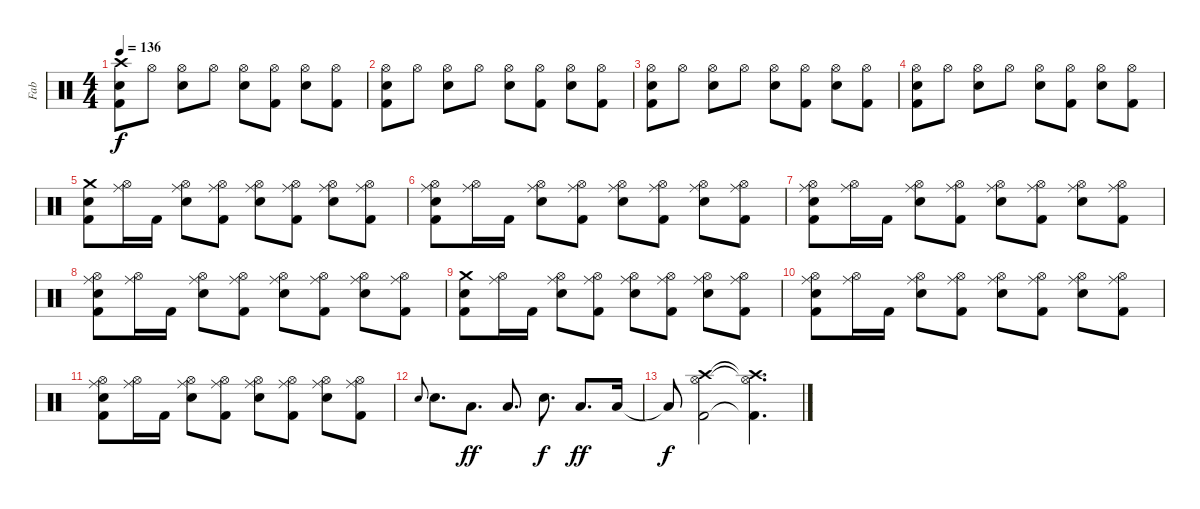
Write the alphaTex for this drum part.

\track ("Fab" "Fab") {instrument percussion}
\staff {score}
\articulation defaults
\ts (4 4)
\tempo 136
\clef neutral
\ks c
("Crash high (hit)" "Snare (hit) 2" "Kick (hit) 2").8{dy f} "Hi-Hat (open)".8 ("Hi-Hat (open)" "Snare (hit) 2").8 "Hi-Hat (open)".8 ("Hi-Hat (open)" "Snare (hit) 2").8 ("Hi-Hat (open)" "Kick (hit) 2").8 ("Hi-Hat (open)" "Snare (hit) 2").8 ("Hi-Hat (open)" "Kick (hit) 2").8 |
("Hi-Hat (open)" "Snare (hit) 2" "Kick (hit) 2").8 "Hi-Hat (open)".8 ("Hi-Hat (open)" "Snare (hit) 2").8 "Hi-Hat (open)".8 ("Hi-Hat (open)" "Snare (hit) 2").8 ("Hi-Hat (open)" "Kick (hit) 2").8 ("Hi-Hat (open)" "Snare (hit) 2").8 ("Hi-Hat (open)" "Kick (hit) 2").8 |
("Hi-Hat (open)" "Snare (hit) 2" "Kick (hit) 2").8 "Hi-Hat (open)".8 ("Hi-Hat (open)" "Snare (hit) 2").8 "Hi-Hat (open)".8 ("Hi-Hat (open)" "Snare (hit) 2").8 ("Hi-Hat (open)" "Kick (hit) 2").8 ("Hi-Hat (open)" "Snare (hit) 2").8 ("Hi-Hat (open)" "Kick (hit) 2").8 |
("Hi-Hat (open)" "Snare (hit) 2" "Kick (hit) 2").8 "Hi-Hat (open)".8 ("Hi-Hat (open)" "Snare (hit) 2").8 "Hi-Hat (open)".8 ("Hi-Hat (open)" "Snare (hit) 2").8 ("Hi-Hat (open)" "Kick (hit) 2").8 ("Hi-Hat (open)" "Snare (hit) 2").8 ("Hi-Hat (open)" "Kick (hit) 2").8 |
("Crash medium (hit)" "Snare (hit) 2" "Kick (hit) 2").8 ("Ride (middle)" "Hi-Hat (open)").16 "Kick (hit) 2".16 ("Ride (middle)" "Hi-Hat (open)" "Snare (hit) 2").8 ("Ride (middle)" "Hi-Hat (open)" "Kick (hit) 2").8 ("Ride (middle)" "Hi-Hat (open)" "Snare (hit) 2").8 ("Ride (middle)" "Hi-Hat (open)" "Kick (hit) 2").8 ("Ride (middle)" "Hi-Hat (open)" "Snare (hit) 2").8 ("Ride (middle)" "Hi-Hat (open)" "Kick (hit) 2").8 |
("Ride (middle)" "Hi-Hat (open)" "Snare (hit) 2" "Kick (hit) 2").8 ("Ride (middle)" "Hi-Hat (open)").16 "Kick (hit) 2".16 ("Ride (middle)" "Hi-Hat (open)" "Snare (hit) 2").8 ("Ride (middle)" "Hi-Hat (open)" "Kick (hit) 2").8 ("Ride (middle)" "Hi-Hat (open)" "Snare (hit) 2").8 ("Ride (middle)" "Hi-Hat (open)" "Kick (hit) 2").8 ("Ride (middle)" "Hi-Hat (open)" "Snare (hit) 2").8 ("Ride (middle)" "Hi-Hat (open)" "Kick (hit) 2").8 |
("Ride (middle)" "Hi-Hat (open)" "Snare (hit) 2" "Kick (hit) 2").8 ("Ride (middle)" "Hi-Hat (open)").16 "Kick (hit) 2".16 ("Ride (middle)" "Hi-Hat (open)" "Snare (hit) 2").8 ("Ride (middle)" "Hi-Hat (open)" "Kick (hit) 2").8 ("Ride (middle)" "Hi-Hat (open)" "Snare (hit) 2").8 ("Ride (middle)" "Hi-Hat (open)" "Kick (hit) 2").8 ("Ride (middle)" "Hi-Hat (open)" "Snare (hit) 2").8 ("Ride (middle)" "Hi-Hat (open)" "Kick (hit) 2").8 |
("Ride (middle)" "Hi-Hat (open)" "Snare (hit) 2" "Kick (hit) 2").8 ("Ride (middle)" "Hi-Hat (open)").16 "Kick (hit) 2".16 ("Ride (middle)" "Hi-Hat (open)" "Snare (hit) 2").8 ("Ride (middle)" "Hi-Hat (open)" "Kick (hit) 2").8 ("Ride (middle)" "Hi-Hat (open)" "Snare (hit) 2").8 ("Ride (middle)" "Hi-Hat (open)" "Kick (hit) 2").8 ("Ride (middle)" "Hi-Hat (open)" "Snare (hit) 2").8 ("Ride (middle)" "Hi-Hat (open)" "Kick (hit) 2").8 |
("Crash medium (hit)" "Snare (hit) 2" "Kick (hit) 2").8 ("Ride (middle)" "Hi-Hat (open)").16 "Kick (hit) 2".16 ("Ride (middle)" "Hi-Hat (open)" "Snare (hit) 2").8 ("Ride (middle)" "Hi-Hat (open)" "Kick (hit) 2").8 ("Ride (middle)" "Hi-Hat (open)" "Snare (hit) 2").8 ("Ride (middle)" "Hi-Hat (open)" "Kick (hit) 2").8 ("Ride (middle)" "Hi-Hat (open)" "Snare (hit) 2").8 ("Ride (middle)" "Hi-Hat (open)" "Kick (hit) 2").8 |
("Ride (middle)" "Hi-Hat (open)" "Snare (hit) 2" "Kick (hit) 2").8 ("Ride (middle)" "Hi-Hat (open)").16 "Kick (hit) 2".16 ("Ride (middle)" "Hi-Hat (open)" "Snare (hit) 2").8 ("Ride (middle)" "Hi-Hat (open)" "Kick (hit) 2").8 ("Ride (middle)" "Hi-Hat (open)" "Snare (hit) 2").8 ("Ride (middle)" "Hi-Hat (open)" "Kick (hit) 2").8 ("Ride (middle)" "Hi-Hat (open)" "Snare (hit) 2").8 ("Ride (middle)" "Hi-Hat (open)" "Kick (hit) 2").8 |
("Ride (middle)" "Hi-Hat (open)" "Snare (hit) 2" "Kick (hit) 2").8 ("Ride (middle)" "Hi-Hat (open)").16 "Kick (hit) 2".16 ("Ride (middle)" "Hi-Hat (open)" "Snare (hit) 2").8 ("Ride (middle)" "Hi-Hat (open)" "Kick (hit) 2").8 ("Ride (middle)" "Hi-Hat (open)" "Snare (hit) 2").8 ("Ride (middle)" "Hi-Hat (open)" "Kick (hit) 2").8 ("Ride (middle)" "Hi-Hat (open)" "Snare (hit) 2").8 ("Ride (middle)" "Hi-Hat (open)" "Kick (hit) 2").8 |
"Snare (hit) 2".8{gr onbeat} "Snare (hit) 2".8{d} "Low Tom (hit)".8{d dy ff} "Low Floor Tom (hit)".8{d} "Snare (hit) 2".8{d dy f} "Low Tom (hit)".8{d dy ff} "Low Floor Tom (hit)".16 |
"Low Floor Tom (hit)"{t}.8{dy f} ("Crash high (hit)" "Hi-Hat (open)" "Kick (hit) 2").2 ("Crash high (hit)"{t} "Hi-Hat (open)"{t} "Kick (hit) 2"{t}).4{d}
